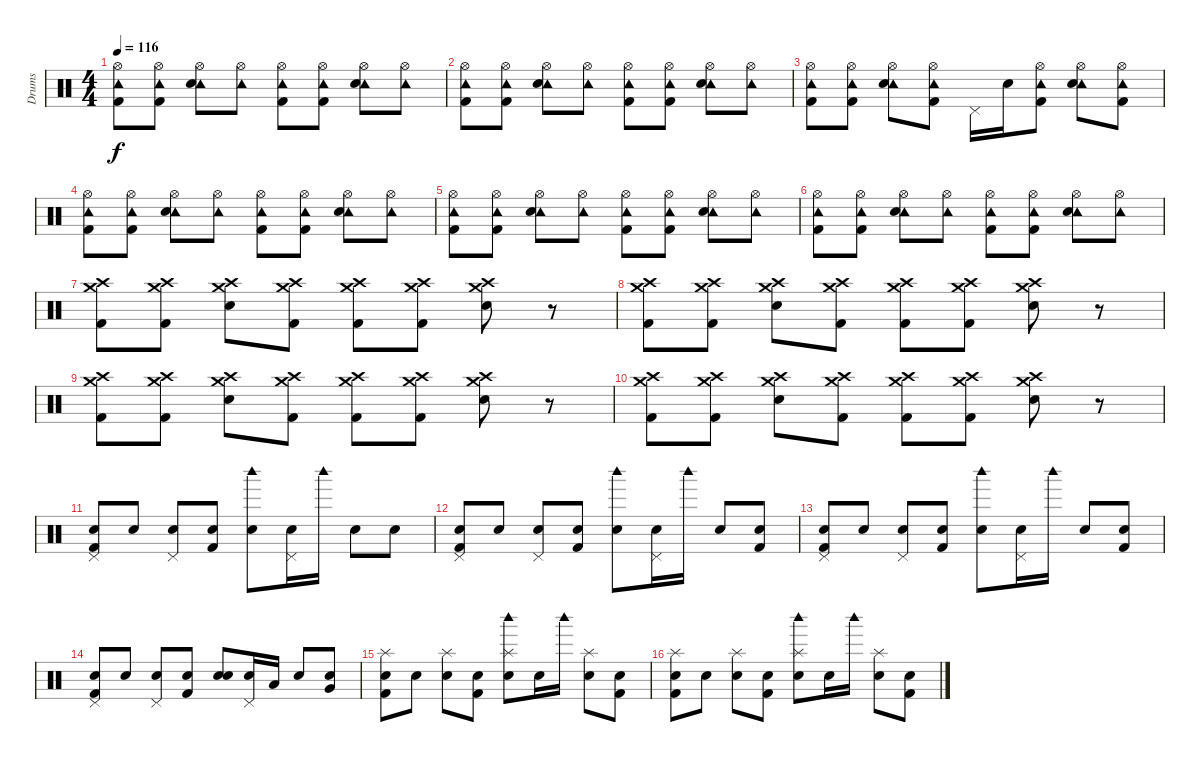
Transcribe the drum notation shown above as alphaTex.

\track ("Drums" "Drums") {instrument percussion}
\staff {score}
\articulation defaults
\ts (4 4)
\tempo 116
\clef neutral
\ks c
("Hi-Hat (open)" "Tambourine (hit)" "Kick (hit) 2").8{dy f} ("Hi-Hat (open)" "Tambourine (hit)" "Kick (hit) 2").8 ("Hi-Hat (open)" "Tambourine (hit)" "Snare (hit) 2").8 ("Hi-Hat (open)" "Tambourine (hit)").8 ("Hi-Hat (open)" "Tambourine (hit)" "Kick (hit) 2").8 ("Hi-Hat (open)" "Tambourine (hit)" "Kick (hit) 2").8 ("Hi-Hat (open)" "Tambourine (hit)" "Snare (hit) 2").8 ("Hi-Hat (open)" "Tambourine (hit)").8 |
("Hi-Hat (open)" "Tambourine (hit)" "Kick (hit) 2").8 ("Hi-Hat (open)" "Tambourine (hit)" "Kick (hit) 2").8 ("Hi-Hat (open)" "Tambourine (hit)" "Snare (hit) 2").8 ("Hi-Hat (open)" "Tambourine (hit)").8 ("Hi-Hat (open)" "Tambourine (hit)" "Kick (hit) 2").8 ("Hi-Hat (open)" "Tambourine (hit)" "Kick (hit) 2").8 ("Hi-Hat (open)" "Tambourine (hit)" "Snare (hit) 2").8 ("Hi-Hat (open)" "Tambourine (hit)").8 |
("Hi-Hat (open)" "Tambourine (hit)" "Kick (hit) 2").8 ("Hi-Hat (open)" "Tambourine (hit)" "Kick (hit) 2").8 ("Hi-Hat (open)" "Tambourine (hit)" "Snare (hit) 2").8 ("Hi-Hat (open)" "Tambourine (hit)" "Kick (hit) 2").8 "Pedal Hi-Hat (hit)".16 "Snare (hit) 2".16 ("Hi-Hat (open)" "Tambourine (hit)" "Kick (hit) 2").8 ("Hi-Hat (open)" "Tambourine (hit)" "Snare (hit) 2").8 ("Hi-Hat (open)" "Tambourine (hit)" "Kick (hit) 2").8 |
("Hi-Hat (open)" "Tambourine (hit)" "Kick (hit) 2").8 ("Hi-Hat (open)" "Tambourine (hit)" "Kick (hit) 2").8 ("Hi-Hat (open)" "Tambourine (hit)" "Snare (hit) 2").8 ("Hi-Hat (open)" "Tambourine (hit)").8 ("Hi-Hat (open)" "Tambourine (hit)" "Kick (hit) 2").8 ("Hi-Hat (open)" "Tambourine (hit)" "Kick (hit) 2").8 ("Hi-Hat (open)" "Tambourine (hit)" "Snare (hit) 2").8 ("Hi-Hat (open)" "Tambourine (hit)").8 |
("Hi-Hat (open)" "Tambourine (hit)" "Kick (hit) 2").8 ("Hi-Hat (open)" "Tambourine (hit)" "Kick (hit) 2").8 ("Hi-Hat (open)" "Tambourine (hit)" "Snare (hit) 2").8 ("Hi-Hat (open)" "Tambourine (hit)").8 ("Hi-Hat (open)" "Tambourine (hit)" "Kick (hit) 2").8 ("Hi-Hat (open)" "Tambourine (hit)" "Kick (hit) 2").8 ("Hi-Hat (open)" "Tambourine (hit)" "Snare (hit) 2").8 ("Hi-Hat (open)" "Tambourine (hit)").8 |
("Hi-Hat (open)" "Tambourine (hit)" "Kick (hit) 2").8 ("Hi-Hat (open)" "Tambourine (hit)" "Kick (hit) 2").8 ("Hi-Hat (open)" "Tambourine (hit)" "Snare (hit) 2").8 ("Hi-Hat (open)" "Tambourine (hit)").8 ("Hi-Hat (open)" "Tambourine (hit)" "Kick (hit) 2").8 ("Hi-Hat (open)" "Tambourine (hit)" "Kick (hit) 2").8 ("Hi-Hat (open)" "Tambourine (hit)" "Snare (hit) 2").8 ("Hi-Hat (open)" "Tambourine (hit)").8 |
("Crash high (hit)" "Crash medium (hit)" "Kick (hit) 2").8 ("Crash high (hit)" "Crash medium (hit)" "Kick (hit) 2").8 ("Crash high (hit)" "Crash medium (hit)" "Snare (hit) 2").8 ("Crash high (hit)" "Crash medium (hit)" "Kick (hit) 2").8 ("Crash high (hit)" "Crash medium (hit)" "Kick (hit) 2").8 ("Crash high (hit)" "Crash medium (hit)" "Kick (hit) 2").8 ("Crash high (hit)" "Crash medium (hit)" "Snare (hit) 2").8 r.8 |
("Crash high (hit)" "Crash medium (hit)" "Kick (hit) 2").8 ("Crash high (hit)" "Crash medium (hit)" "Kick (hit) 2").8 ("Crash high (hit)" "Crash medium (hit)" "Snare (hit) 2").8 ("Crash high (hit)" "Crash medium (hit)" "Kick (hit) 2").8 ("Crash high (hit)" "Crash medium (hit)" "Kick (hit) 2").8 ("Crash high (hit)" "Crash medium (hit)" "Kick (hit) 2").8 ("Crash high (hit)" "Crash medium (hit)" "Snare (hit) 2").8 r.8 |
("Crash high (hit)" "Crash medium (hit)" "Kick (hit) 2").8 ("Crash high (hit)" "Crash medium (hit)" "Kick (hit) 2").8 ("Crash high (hit)" "Crash medium (hit)" "Snare (hit) 2").8 ("Crash high (hit)" "Crash medium (hit)" "Kick (hit) 2").8 ("Crash high (hit)" "Crash medium (hit)" "Kick (hit) 2").8 ("Crash high (hit)" "Crash medium (hit)" "Kick (hit) 2").8 ("Crash high (hit)" "Crash medium (hit)" "Snare (hit) 2").8 r.8 |
("Crash high (hit)" "Crash medium (hit)" "Kick (hit) 2").8 ("Crash high (hit)" "Crash medium (hit)" "Kick (hit) 2").8 ("Crash high (hit)" "Crash medium (hit)" "Snare (hit) 2").8 ("Crash high (hit)" "Crash medium (hit)" "Kick (hit) 2").8 ("Crash high (hit)" "Crash medium (hit)" "Kick (hit) 2").8 ("Crash high (hit)" "Crash medium (hit)" "Kick (hit) 2").8 ("Crash high (hit)" "Crash medium (hit)" "Snare (hit) 2").8 r.8 |
("Pedal Hi-Hat (hit)" "Kick (hit) 2" "Snare (hit)"{x}).8 "Snare (hit)"{x}.8 ("Pedal Hi-Hat (hit)" "Snare (hit)"{x}).8 ("Kick (hit) 2" "Snare (hit)"{x}).8 ("Woodblock high (hit)" "Snare (hit)"{x}).8 ("Pedal Hi-Hat (hit)" "Snare (hit)"{x}).16 "Woodblock high (hit)".16 "Snare (hit)"{x}.8 "Snare (hit)"{x}.8 |
("Pedal Hi-Hat (hit)" "Kick (hit) 2" "Snare (hit)"{x}).8 "Snare (hit)"{x}.8 ("Pedal Hi-Hat (hit)" "Snare (hit)"{x}).8 ("Kick (hit) 2" "Snare (hit)"{x}).8 ("Woodblock high (hit)" "Snare (hit)"{x}).8 ("Pedal Hi-Hat (hit)" "Snare (hit)"{x}).16 "Woodblock high (hit)".16 "Snare (hit)"{x}.8 ("Kick (hit) 2" "Snare (hit)"{x}).8 |
("Pedal Hi-Hat (hit)" "Kick (hit) 2" "Snare (hit)"{x}).8 "Snare (hit)"{x}.8 ("Pedal Hi-Hat (hit)" "Snare (hit)"{x}).8 ("Kick (hit) 2" "Snare (hit)"{x}).8 ("Woodblock high (hit)" "Snare (hit)"{x}).8 ("Pedal Hi-Hat (hit)" "Snare (hit)"{x}).16 "Woodblock high (hit)".16 "Snare (hit)"{x}.8 ("Kick (hit) 2" "Snare (hit)"{x}).8 |
("Pedal Hi-Hat (hit)" "Kick (hit) 2" "Snare (hit)"{x}).8 "Snare (hit)"{x}.8 ("Pedal Hi-Hat (hit)" "Snare (hit)"{x}).8 ("Kick (hit) 2" "Snare (hit)"{x}).8 ("Snare (hit) 2" "Snare (hit)"{x}).8 ("Pedal Hi-Hat (hit)" "Snare (hit)"{x}).16 "Low Tom (hit)".16 "Snare (hit)"{x}.8 ("Very Low Tom (hit)" "Snare (hit)"{x}).8 |
("Splash (hit)" "Kick (hit) 2" "Snare (hit)"{x}).8 "Snare (hit)"{x}.8 ("Splash (hit)" "Snare (hit)"{x}).8 ("Kick (hit) 2" "Snare (hit)"{x}).8 ("Woodblock high (hit)" "Splash (hit)" "Snare (hit)"{x}).8 "Snare (hit)"{x}.16 "Woodblock high (hit)".16 ("Splash (hit)" "Snare (hit)"{x}).8 ("Kick (hit) 2" "Snare (hit)"{x}).8 |
("Splash (hit)" "Kick (hit) 2" "Snare (hit)"{x}).8 "Snare (hit)"{x}.8 ("Splash (hit)" "Snare (hit)"{x}).8 ("Kick (hit) 2" "Snare (hit)"{x}).8 ("Woodblock high (hit)" "Splash (hit)" "Snare (hit)"{x}).8 "Snare (hit)"{x}.16 "Woodblock high (hit)".16 ("Splash (hit)" "Snare (hit)"{x}).8 ("Kick (hit) 2" "Snare (hit)"{x}).8
